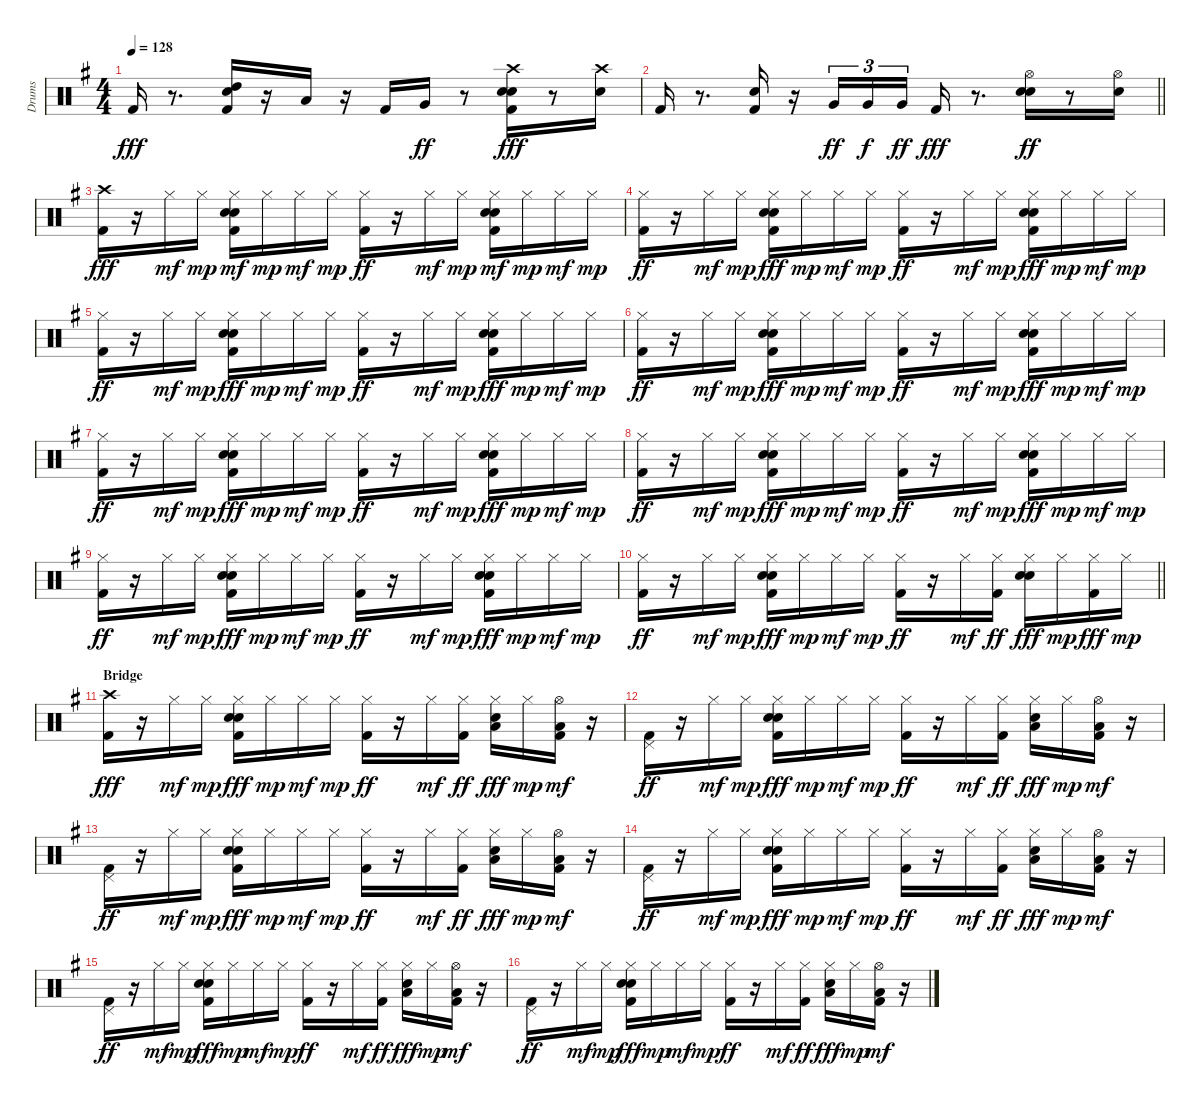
\track ("Drums" "Drums") {instrument percussion}
\staff {score}
\articulation defaults
\ts (4 4)
\tempo 128
\clef neutral
\ks eminor "Kick (hit) 2".16{dy fff}
r.8{d} ("Hand Clap (hit)" "Kick (hit) 2" "High Tom (hit)").16 r.16 "Low Tom (hit)".16 r.16 "Kick (hit) 2".16 "Very Low Tom (hit)".16{dy ff} r.8 ("Hand Clap (hit)" "Kick (hit) 2" "Electric Snare (hit)" "Crash high (hit)").16{dy fff} r.8 ("Electric Snare (hit)" "Crash high (hit)").16 |
\barLineRight lightlight "Kick (hit) 2".16
r.8{d} ("Hand Clap (hit)" "Kick (hit) 2").16 r.16 "Very Low Tom (hit)".16{tu (3 2) dy ff} "Very Low Tom (hit)".16{tu (3 2) dy f} "Very Low Tom (hit)".16{tu (3 2) dy ff} "Kick (hit) 2".16{dy fff} r.8{d} ("Hand Clap (hit)" "Electric Snare (hit)" "Hi-Hat (open)").16{dy ff} r.8 ("Electric Snare (hit)" "Hi-Hat (open)").16 |
("Crash high (hit)" "Kick (hit) 2").16{dy fff} r.16 "Hi-Hat (closed)".16{dy mf} "Hi-Hat (closed)".16{dy mp} ("Hand Clap (hit)" "Electric Snare (hit)" "Kick (hit) 2" "Hi-Hat (closed)").16{dy mf} "Hi-Hat (closed)".16{dy mp} "Hi-Hat (closed)".16{dy mf} "Hi-Hat (closed)".16{dy mp} ("Kick (hit) 2" "Hi-Hat (closed)").16{dy ff} r.16 "Hi-Hat (closed)".16{dy mf} "Hi-Hat (closed)".16{dy mp} ("Hand Clap (hit)" "Kick (hit) 2" "Electric Snare (hit)" "Hi-Hat (closed)").16{dy mf} "Hi-Hat (closed)".16{dy mp} "Hi-Hat (closed)".16{dy mf} "Hi-Hat (closed)".16{dy mp} |
("Kick (hit) 2" "Hi-Hat (closed)").16{dy ff} r.16 "Hi-Hat (closed)".16{dy mf} "Hi-Hat (closed)".16{dy mp} ("Hand Clap (hit)" "Kick (hit) 2" "Hi-Hat (closed)" "Electric Snare (hit)").16{dy fff} "Hi-Hat (closed)".16{dy mp} "Hi-Hat (closed)".16{dy mf} "Hi-Hat (closed)".16{dy mp} ("Kick (hit) 2" "Hi-Hat (closed)").16{dy ff} r.16 "Hi-Hat (closed)".16{dy mf} "Hi-Hat (closed)".16{dy mp} ("Hand Clap (hit)" "Kick (hit) 2" "Hi-Hat (closed)" "Electric Snare (hit)").16{dy fff} "Hi-Hat (closed)".16{dy mp} "Hi-Hat (closed)".16{dy mf} "Hi-Hat (closed)".16{dy mp} |
("Kick (hit) 2" "Hi-Hat (closed)").16{dy ff} r.16 "Hi-Hat (closed)".16{dy mf} "Hi-Hat (closed)".16{dy mp} ("Hand Clap (hit)" "Kick (hit) 2" "Hi-Hat (closed)" "Electric Snare (hit)").16{dy fff} "Hi-Hat (closed)".16{dy mp} "Hi-Hat (closed)".16{dy mf} "Hi-Hat (closed)".16{dy mp} ("Kick (hit) 2" "Hi-Hat (closed)").16{dy ff} r.16 "Hi-Hat (closed)".16{dy mf} "Hi-Hat (closed)".16{dy mp} ("Hand Clap (hit)" "Kick (hit) 2" "Hi-Hat (closed)" "Electric Snare (hit)").16{dy fff} "Hi-Hat (closed)".16{dy mp} "Hi-Hat (closed)".16{dy mf} "Hi-Hat (closed)".16{dy mp} |
("Kick (hit) 2" "Hi-Hat (closed)").16{dy ff} r.16 "Hi-Hat (closed)".16{dy mf} "Hi-Hat (closed)".16{dy mp} ("Hand Clap (hit)" "Kick (hit) 2" "Hi-Hat (closed)" "Electric Snare (hit)").16{dy fff} "Hi-Hat (closed)".16{dy mp} "Hi-Hat (closed)".16{dy mf} "Hi-Hat (closed)".16{dy mp} ("Kick (hit) 2" "Hi-Hat (closed)").16{dy ff} r.16 "Hi-Hat (closed)".16{dy mf} "Hi-Hat (closed)".16{dy mp} ("Hand Clap (hit)" "Kick (hit) 2" "Hi-Hat (closed)" "Electric Snare (hit)").16{dy fff} "Hi-Hat (closed)".16{dy mp} "Hi-Hat (closed)".16{dy mf} "Hi-Hat (closed)".16{dy mp} |
("Kick (hit) 2" "Hi-Hat (closed)").16{dy ff} r.16 "Hi-Hat (closed)".16{dy mf} "Hi-Hat (closed)".16{dy mp} ("Hand Clap (hit)" "Kick (hit) 2" "Hi-Hat (closed)" "Electric Snare (hit)").16{dy fff} "Hi-Hat (closed)".16{dy mp} "Hi-Hat (closed)".16{dy mf} "Hi-Hat (closed)".16{dy mp} ("Kick (hit) 2" "Hi-Hat (closed)").16{dy ff} r.16 "Hi-Hat (closed)".16{dy mf} "Hi-Hat (closed)".16{dy mp} ("Hand Clap (hit)" "Kick (hit) 2" "Hi-Hat (closed)" "Electric Snare (hit)").16{dy fff} "Hi-Hat (closed)".16{dy mp} "Hi-Hat (closed)".16{dy mf} "Hi-Hat (closed)".16{dy mp} |
("Kick (hit) 2" "Hi-Hat (closed)").16{dy ff} r.16 "Hi-Hat (closed)".16{dy mf} "Hi-Hat (closed)".16{dy mp} ("Hand Clap (hit)" "Kick (hit) 2" "Hi-Hat (closed)" "Electric Snare (hit)").16{dy fff} "Hi-Hat (closed)".16{dy mp} "Hi-Hat (closed)".16{dy mf} "Hi-Hat (closed)".16{dy mp} ("Kick (hit) 2" "Hi-Hat (closed)").16{dy ff} r.16 "Hi-Hat (closed)".16{dy mf} "Hi-Hat (closed)".16{dy mp} ("Hand Clap (hit)" "Kick (hit) 2" "Hi-Hat (closed)" "Electric Snare (hit)").16{dy fff} "Hi-Hat (closed)".16{dy mp} "Hi-Hat (closed)".16{dy mf} "Hi-Hat (closed)".16{dy mp} |
("Kick (hit) 2" "Hi-Hat (closed)").16{dy ff} r.16 "Hi-Hat (closed)".16{dy mf} "Hi-Hat (closed)".16{dy mp} ("Hand Clap (hit)" "Kick (hit) 2" "Hi-Hat (closed)" "Electric Snare (hit)").16{dy fff} "Hi-Hat (closed)".16{dy mp} "Hi-Hat (closed)".16{dy mf} "Hi-Hat (closed)".16{dy mp} ("Kick (hit) 2" "Hi-Hat (closed)").16{dy ff} r.16 "Hi-Hat (closed)".16{dy mf} "Hi-Hat (closed)".16{dy mp} ("Hand Clap (hit)" "Kick (hit) 2" "Hi-Hat (closed)" "Electric Snare (hit)").16{dy fff} "Hi-Hat (closed)".16{dy mp} "Hi-Hat (closed)".16{dy mf} "Hi-Hat (closed)".16{dy mp} |
\barLineRight lightlight
("Kick (hit) 2" "Hi-Hat (closed)").16{dy ff} r.16 "Hi-Hat (closed)".16{dy mf} "Hi-Hat (closed)".16{dy mp} ("Hand Clap (hit)" "Kick (hit) 2" "Hi-Hat (closed)" "Electric Snare (hit)").16{dy fff} "Hi-Hat (closed)".16{dy mp} "Hi-Hat (closed)".16{dy mf} "Hi-Hat (closed)".16{dy mp} ("Kick (hit) 2" "Hi-Hat (closed)").16{dy ff} r.16 "Hi-Hat (closed)".16{dy mf} ("Hi-Hat (closed)" "Kick (hit) 2").16{dy ff} ("Hand Clap (hit)" "Hi-Hat (closed)" "Electric Snare (hit)").16{dy fff} "Hi-Hat (closed)".16{dy mp} ("Hi-Hat (closed)" "Kick (hit) 2").16{dy fff} "Hi-Hat (closed)".16{dy mp} |
\section ("" "Bridge")
("Kick (hit) 2" "Crash high (hit)").16{dy fff} r.16 "Hi-Hat (closed)".16{dy mf} "Hi-Hat (closed)".16{dy mp} ("Hand Clap (hit)" "Kick (hit) 2" "Hi-Hat (closed)" "Electric Snare (hit)").16{dy fff} "Hi-Hat (closed)".16{dy mp} "Hi-Hat (closed)".16{dy mf} "Hi-Hat (closed)".16{dy mp} ("Kick (hit) 2" "Hi-Hat (closed)").16{dy ff} r.16 "Hi-Hat (closed)".16{dy mf} ("Hi-Hat (closed)" "Kick (hit) 2").16{dy ff} ("Hand Clap (hit)" "Hi-Hat (closed)" "Low Tom (hit)").16{dy fff} "Hi-Hat (closed)".16{dy mp} ("Kick (hit) 2" "Low Floor Tom (hit)" "Hi-Hat (open)").16{dy mf} r.16 |
("Kick (hit) 2" "Pedal Hi-Hat (hit)").16{dy ff} r.16 "Hi-Hat (closed)".16{dy mf} "Hi-Hat (closed)".16{dy mp} ("Hand Clap (hit)" "Kick (hit) 2" "Hi-Hat (closed)" "Electric Snare (hit)").16{dy fff} "Hi-Hat (closed)".16{dy mp} "Hi-Hat (closed)".16{dy mf} "Hi-Hat (closed)".16{dy mp} ("Kick (hit) 2" "Hi-Hat (closed)").16{dy ff} r.16 "Hi-Hat (closed)".16{dy mf} ("Hi-Hat (closed)" "Kick (hit) 2").16{dy ff} ("Hand Clap (hit)" "Hi-Hat (closed)" "Low Tom (hit)").16{dy fff} "Hi-Hat (closed)".16{dy mp} ("Kick (hit) 2" "Low Floor Tom (hit)" "Hi-Hat (open)").16{dy mf} r.16 |
("Kick (hit) 2" "Pedal Hi-Hat (hit)").16{dy ff} r.16 "Hi-Hat (closed)".16{dy mf} "Hi-Hat (closed)".16{dy mp} ("Hand Clap (hit)" "Kick (hit) 2" "Hi-Hat (closed)" "Electric Snare (hit)").16{dy fff} "Hi-Hat (closed)".16{dy mp} "Hi-Hat (closed)".16{dy mf} "Hi-Hat (closed)".16{dy mp} ("Kick (hit) 2" "Hi-Hat (closed)").16{dy ff} r.16 "Hi-Hat (closed)".16{dy mf} ("Hi-Hat (closed)" "Kick (hit) 2").16{dy ff} ("Hand Clap (hit)" "Hi-Hat (closed)" "Low Tom (hit)").16{dy fff} "Hi-Hat (closed)".16{dy mp} ("Kick (hit) 2" "Low Floor Tom (hit)" "Hi-Hat (open)").16{dy mf} r.16 |
("Kick (hit) 2" "Pedal Hi-Hat (hit)").16{dy ff} r.16 "Hi-Hat (closed)".16{dy mf} "Hi-Hat (closed)".16{dy mp} ("Hand Clap (hit)" "Kick (hit) 2" "Hi-Hat (closed)" "Electric Snare (hit)").16{dy fff} "Hi-Hat (closed)".16{dy mp} "Hi-Hat (closed)".16{dy mf} "Hi-Hat (closed)".16{dy mp} ("Kick (hit) 2" "Hi-Hat (closed)").16{dy ff} r.16 "Hi-Hat (closed)".16{dy mf} ("Hi-Hat (closed)" "Kick (hit) 2").16{dy ff} ("Hand Clap (hit)" "Hi-Hat (closed)" "Low Tom (hit)").16{dy fff} "Hi-Hat (closed)".16{dy mp} ("Kick (hit) 2" "Low Floor Tom (hit)" "Hi-Hat (open)").16{dy mf} r.16 |
("Kick (hit) 2" "Pedal Hi-Hat (hit)").16{dy ff} r.16 "Hi-Hat (closed)".16{dy mf} "Hi-Hat (closed)".16{dy mp} ("Hand Clap (hit)" "Kick (hit) 2" "Hi-Hat (closed)" "Electric Snare (hit)").16{dy fff} "Hi-Hat (closed)".16{dy mp} "Hi-Hat (closed)".16{dy mf} "Hi-Hat (closed)".16{dy mp} ("Kick (hit) 2" "Hi-Hat (closed)").16{dy ff} r.16 "Hi-Hat (closed)".16{dy mf} ("Hi-Hat (closed)" "Kick (hit) 2").16{dy ff} ("Hand Clap (hit)" "Hi-Hat (closed)" "Low Tom (hit)").16{dy fff} "Hi-Hat (closed)".16{dy mp} ("Kick (hit) 2" "Low Floor Tom (hit)" "Hi-Hat (open)").16{dy mf} r.16 |
("Kick (hit) 2" "Pedal Hi-Hat (hit)").16{dy ff} r.16 "Hi-Hat (closed)".16{dy mf} "Hi-Hat (closed)".16{dy mp} ("Hand Clap (hit)" "Kick (hit) 2" "Hi-Hat (closed)" "Electric Snare (hit)").16{dy fff} "Hi-Hat (closed)".16{dy mp} "Hi-Hat (closed)".16{dy mf} "Hi-Hat (closed)".16{dy mp} ("Kick (hit) 2" "Hi-Hat (closed)").16{dy ff} r.16 "Hi-Hat (closed)".16{dy mf} ("Hi-Hat (closed)" "Kick (hit) 2").16{dy ff} ("Hand Clap (hit)" "Hi-Hat (closed)" "Low Tom (hit)").16{dy fff} "Hi-Hat (closed)".16{dy mp} ("Kick (hit) 2" "Low Floor Tom (hit)" "Hi-Hat (open)").16{dy mf} r.16
